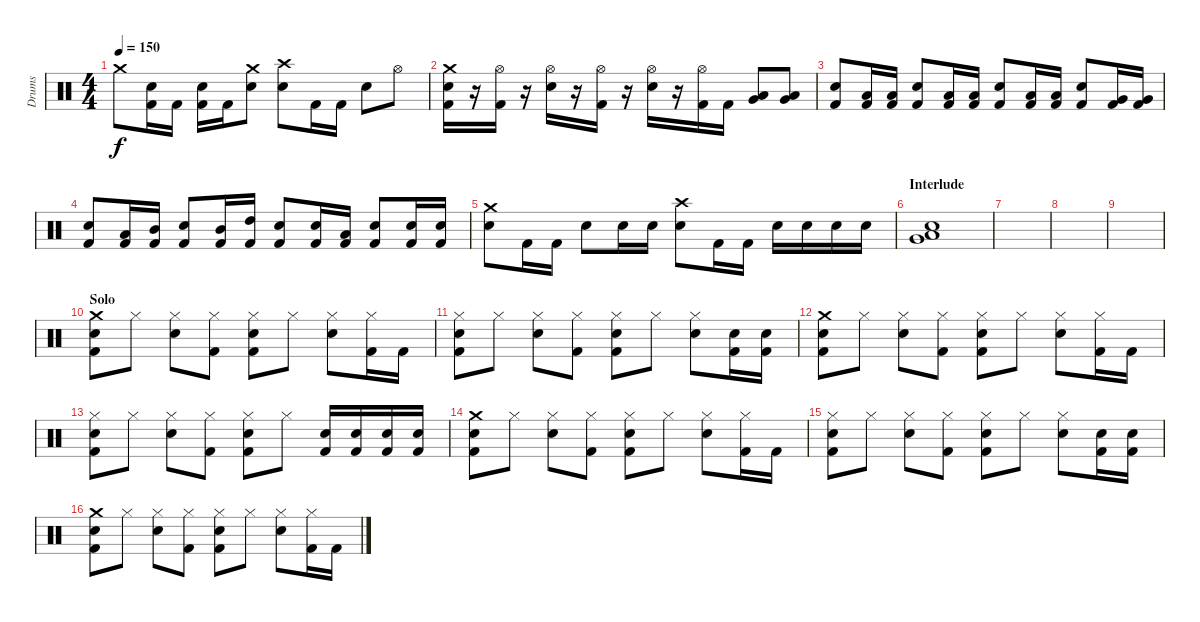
\track ("Drums" "Drums") {instrument percussion}
\staff {score}
\articulation defaults
\ts (4 4)
\tempo 150
\clef neutral
\ks c "Crash medium (hit)".8{dy f}
("Kick (hit) 2" "Snare (hit) 2").16 "Kick (hit) 2".16 ("Kick (hit) 2" "Snare (hit) 2").16 "Kick (hit) 2".16 ("Snare (hit) 2" "Crash medium (hit)").8 ("Snare (hit) 2" "Crash high (hit)").8 "Kick (hit) 2".16 "Kick (hit) 2".16 "Snare (hit) 2".8 "Hi-Hat (open)".8 |
("Kick (hit) 2" "Snare (hit) 2" "Crash medium (hit)").16 r.16 ("Kick (hit) 2" "Hi-Hat (open)").16 r.16 ("Snare (hit) 2" "Hi-Hat (open)").16 r.16 ("Kick (hit) 2" "Hi-Hat (open)").16 r.16 ("Snare (hit) 2" "Hi-Hat (open)").16 r.16 ("Kick (hit) 2" "Hi-Hat (open)").16 "Kick (hit) 2".16 ("Very Low Tom (hit)" "Low Tom (hit)").8 ("Very Low Tom (hit)" "Low Tom (hit)").8 |
("Kick (hit) 2" "Snare (hit) 2").8 ("Kick (hit) 2" "Low Tom (hit)").16 ("Kick (hit) 2" "Low Tom (hit)").16 ("Kick (hit) 2" "Snare (hit) 2").8 ("Kick (hit) 2" "Low Tom (hit)").16 ("Kick (hit) 2" "Low Tom (hit)").16 ("Kick (hit) 2" "Snare (hit) 2").8 ("Kick (hit) 2" "Low Tom (hit)").16 ("Kick (hit) 2" "Low Tom (hit)").16 ("Kick (hit) 2" "Snare (hit) 2").8 ("Kick (hit) 2" "Very Low Tom (hit)").16 ("Kick (hit) 2" "Very Low Tom (hit)").16 |
("Kick (hit) 2" "Snare (hit) 2").8 ("Kick (hit) 2" "Low Tom (hit)").16 ("Kick (hit) 2" "Mid Tom (hit)").16 ("Kick (hit) 2" "Snare (hit) 2").8 ("Kick (hit) 2" "Mid Tom (hit)").16 ("Kick (hit) 2" "High Tom (hit)").16 ("Kick (hit) 2" "Snare (hit) 2").8 ("Kick (hit) 2" "Snare (hit) 2").16 ("Kick (hit) 2" "Low Tom (hit)").16 ("Kick (hit) 2" "Snare (hit) 2").8 ("Kick (hit) 2" "Snare (hit) 2").16 ("Kick (hit) 2" "Snare (hit) 2").16 |
("Snare (hit) 2" "Crash medium (hit)").8 "Kick (hit) 2".16 "Kick (hit) 2".16 "Snare (hit) 2".8 "Snare (hit) 2".16 "Snare (hit) 2".16 ("Snare (hit) 2" "Crash high (hit)").8 "Kick (hit) 2".16 "Kick (hit) 2".16 "Snare (hit) 2".16 "Snare (hit) 2".16 "Snare (hit) 2".16 "Snare (hit) 2".16 |
\section ("" "Interlude")
("Snare (hit) 2" "Very Low Tom (hit)" "Low Tom (hit)").1 |
|
|
|
\section ("" "Solo")
("Kick (hit) 2" "Snare (hit) 2" "Crash medium (hit)").8 "Hi-Hat (closed)".8 ("Snare (hit) 2" "Hi-Hat (closed)").8 ("Kick (hit) 2" "Hi-Hat (closed)").8 ("Kick (hit) 2" "Snare (hit) 2" "Hi-Hat (closed)").8 "Hi-Hat (closed)".8 ("Snare (hit) 2" "Hi-Hat (closed)").8 ("Kick (hit) 2" "Hi-Hat (closed)").16 "Kick (hit) 2".16 |
("Kick (hit) 2" "Snare (hit) 2" "Hi-Hat (closed)").8 "Hi-Hat (closed)".8 ("Snare (hit) 2" "Hi-Hat (closed)").8 ("Kick (hit) 2" "Hi-Hat (closed)").8 ("Kick (hit) 2" "Snare (hit) 2" "Hi-Hat (closed)").8 "Hi-Hat (closed)".8 ("Snare (hit) 2" "Hi-Hat (closed)").8 ("Kick (hit) 2" "Snare (hit) 2").16 ("Kick (hit) 2" "Snare (hit) 2").16 |
("Kick (hit) 2" "Snare (hit) 2" "Crash medium (hit)").8 "Hi-Hat (closed)".8 ("Snare (hit) 2" "Hi-Hat (closed)").8 ("Kick (hit) 2" "Hi-Hat (closed)").8 ("Kick (hit) 2" "Snare (hit) 2" "Hi-Hat (closed)").8 "Hi-Hat (closed)".8 ("Snare (hit) 2" "Hi-Hat (closed)").8 ("Kick (hit) 2" "Hi-Hat (closed)").16 "Kick (hit) 2".16 |
("Kick (hit) 2" "Snare (hit) 2" "Hi-Hat (closed)").8 "Hi-Hat (closed)".8 ("Snare (hit) 2" "Hi-Hat (closed)").8 ("Kick (hit) 2" "Hi-Hat (closed)").8 ("Kick (hit) 2" "Snare (hit) 2" "Hi-Hat (closed)").8 "Hi-Hat (closed)".8 ("Kick (hit) 2" "Snare (hit) 2").16 ("Kick (hit) 2" "Snare (hit) 2").16 ("Kick (hit) 2" "Snare (hit) 2").16 ("Kick (hit) 2" "Snare (hit) 2").16 |
("Kick (hit) 2" "Snare (hit) 2" "Crash medium (hit)").8 "Hi-Hat (closed)".8 ("Snare (hit) 2" "Hi-Hat (closed)").8 ("Kick (hit) 2" "Hi-Hat (closed)").8 ("Kick (hit) 2" "Snare (hit) 2" "Hi-Hat (closed)").8 "Hi-Hat (closed)".8 ("Snare (hit) 2" "Hi-Hat (closed)").8 ("Kick (hit) 2" "Hi-Hat (closed)").16 "Kick (hit) 2".16 |
("Kick (hit) 2" "Snare (hit) 2" "Hi-Hat (closed)").8 "Hi-Hat (closed)".8 ("Snare (hit) 2" "Hi-Hat (closed)").8 ("Kick (hit) 2" "Hi-Hat (closed)").8 ("Kick (hit) 2" "Snare (hit) 2" "Hi-Hat (closed)").8 "Hi-Hat (closed)".8 ("Snare (hit) 2" "Hi-Hat (closed)").8 ("Kick (hit) 2" "Snare (hit) 2").16 ("Kick (hit) 2" "Snare (hit) 2").16 |
("Kick (hit) 2" "Snare (hit) 2" "Crash medium (hit)").8 "Hi-Hat (closed)".8 ("Snare (hit) 2" "Hi-Hat (closed)").8 ("Kick (hit) 2" "Hi-Hat (closed)").8 ("Kick (hit) 2" "Snare (hit) 2" "Hi-Hat (closed)").8 "Hi-Hat (closed)".8 ("Snare (hit) 2" "Hi-Hat (closed)").8 ("Kick (hit) 2" "Hi-Hat (closed)").16 "Kick (hit) 2".16
